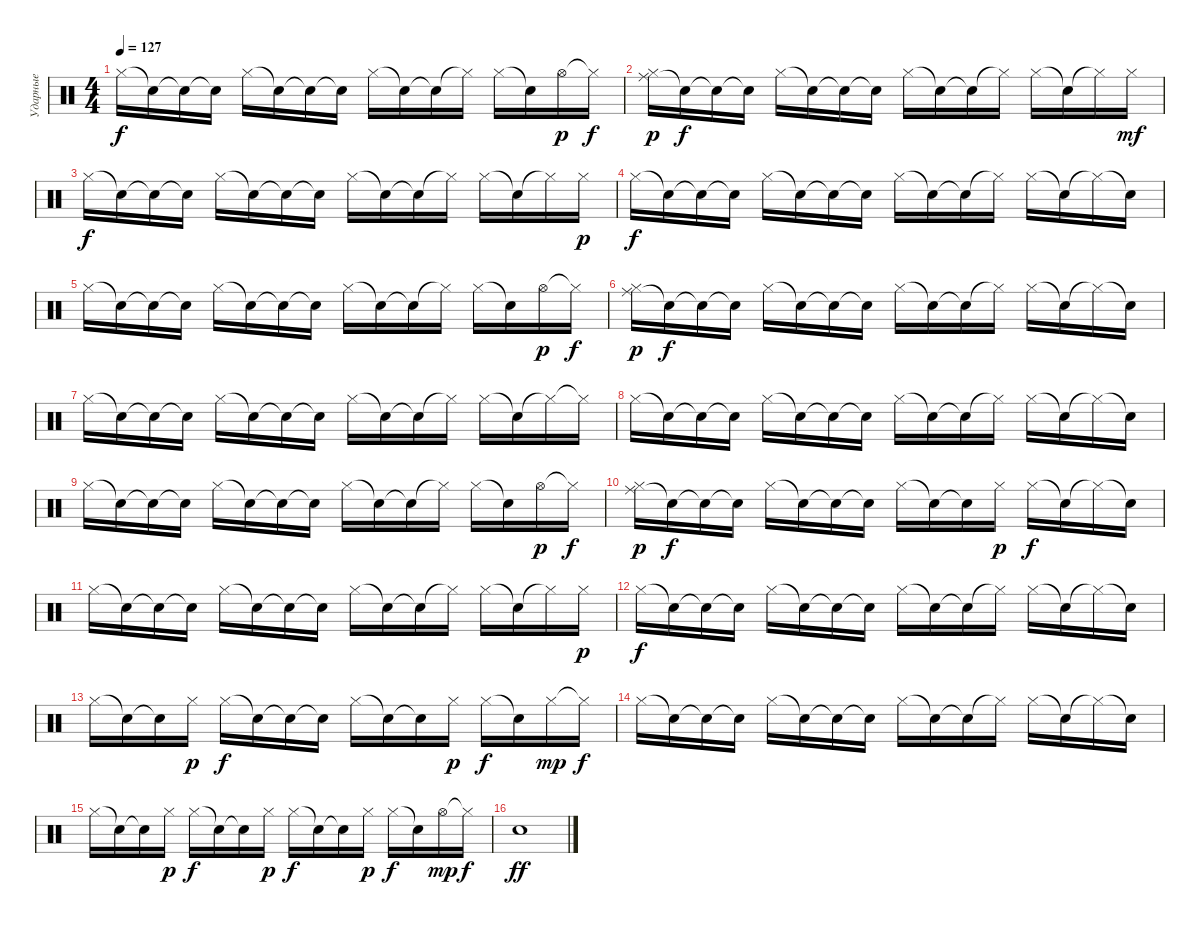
\track ("Ударные" "Ударные") {instrument percussion}
\staff {score}
\articulation defaults
\ts (4 4)
\tempo 127
\clef neutral
\ks c "Hi-Hat (closed)".16{dy f} "Snare (hit)"{t}.16 "Snare (hit)"{t}.16 "Snare (hit)"{t}.16 "Hi-Hat (closed)".16 "Snare (hit)"{t}.16 "Snare (hit)"{t}.16 "Snare (hit)"{t}.16 "Hi-Hat (closed)".16 "Snare (hit)"{t}.16 "Snare (hit)"{t}.16 "Hi-Hat (closed)"{t}.16 "Hi-Hat (closed)".16 "Snare (hit)"{t}.16 "Hi-Hat (open)".16{dy p} "Hi-Hat (closed)"{t}.16{dy f}
|
("Ride (middle)" "Hi-Hat (closed)").16{dy p} "Snare (hit)"{t}.16{dy f} "Snare (hit)"{t}.16 "Snare (hit)"{t}.16 "Hi-Hat (closed)".16 "Snare (hit)"{t}.16 "Snare (hit)"{t}.16 "Snare (hit)"{t}.16 "Hi-Hat (closed)".16 "Snare (hit)"{t}.16 "Snare (hit)"{t}.16 "Hi-Hat (closed)"{t}.16 "Hi-Hat (closed)".16 "Snare (hit)"{t}.16 "Hi-Hat (closed)"{t}.16 "Hi-Hat (closed)".16{dy mf} |
"Hi-Hat (closed)".16{dy f} "Snare (hit)"{t}.16 "Snare (hit)"{t}.16 "Snare (hit)"{t}.16 "Hi-Hat (closed)".16 "Snare (hit)"{t}.16 "Snare (hit)"{t}.16 "Snare (hit)"{t}.16 "Hi-Hat (closed)".16 "Snare (hit)"{t}.16 "Snare (hit)"{t}.16 "Hi-Hat (closed)"{t}.16 "Hi-Hat (closed)".16 "Snare (hit)"{t}.16 "Hi-Hat (closed)"{t}.16 "Hi-Hat (closed)".16{dy p} |
"Hi-Hat (closed)".16{dy f} "Snare (hit)"{t}.16 "Snare (hit)"{t}.16 "Snare (hit)"{t}.16 "Hi-Hat (closed)".16 "Snare (hit)"{t}.16 "Snare (hit)"{t}.16 "Snare (hit)"{t}.16 "Hi-Hat (closed)".16 "Snare (hit)"{t}.16 "Snare (hit)"{t}.16 "Hi-Hat (closed)"{t}.16 "Hi-Hat (closed)".16 "Snare (hit)"{t}.16 "Hi-Hat (closed)"{t}.16 "Snare (hit)"{t}.16 |
"Hi-Hat (closed)".16 "Snare (hit)"{t}.16 "Snare (hit)"{t}.16 "Snare (hit)"{t}.16 "Hi-Hat (closed)".16 "Snare (hit)"{t}.16 "Snare (hit)"{t}.16 "Snare (hit)"{t}.16 "Hi-Hat (closed)".16 "Snare (hit)"{t}.16 "Snare (hit)"{t}.16 "Hi-Hat (closed)"{t}.16 "Hi-Hat (closed)".16 "Snare (hit)"{t}.16 "Hi-Hat (open)".16{dy p} "Hi-Hat (closed)"{t}.16{dy f} |
("Ride (middle)" "Hi-Hat (closed)").16{dy p} "Snare (hit)"{t}.16{dy f} "Snare (hit)"{t}.16 "Snare (hit)"{t}.16 "Hi-Hat (closed)".16 "Snare (hit)"{t}.16 "Snare (hit)"{t}.16 "Snare (hit)"{t}.16 "Hi-Hat (closed)".16 "Snare (hit)"{t}.16 "Snare (hit)"{t}.16 "Hi-Hat (closed)"{t}.16 "Hi-Hat (closed)".16 "Snare (hit)"{t}.16 "Hi-Hat (closed)"{t}.16 "Snare (hit)"{t}.16 |
"Hi-Hat (closed)".16 "Snare (hit)"{t}.16 "Snare (hit)"{t}.16 "Snare (hit)"{t}.16 "Hi-Hat (closed)".16 "Snare (hit)"{t}.16 "Snare (hit)"{t}.16 "Snare (hit)"{t}.16 "Hi-Hat (closed)".16 "Snare (hit)"{t}.16 "Snare (hit)"{t}.16 "Hi-Hat (closed)"{t}.16 "Hi-Hat (closed)".16 "Snare (hit)"{t}.16 "Hi-Hat (closed)"{t}.16 "Hi-Hat (closed)"{t}.16 |
"Hi-Hat (closed)".16 "Snare (hit)"{t}.16 "Snare (hit)"{t}.16 "Snare (hit)"{t}.16 "Hi-Hat (closed)".16 "Snare (hit)"{t}.16 "Snare (hit)"{t}.16 "Snare (hit)"{t}.16 "Hi-Hat (closed)".16 "Snare (hit)"{t}.16 "Snare (hit)"{t}.16 "Hi-Hat (closed)"{t}.16 "Hi-Hat (closed)".16 "Snare (hit)"{t}.16 "Hi-Hat (closed)"{t}.16 "Snare (hit)"{t}.16 |
"Hi-Hat (closed)".16 "Snare (hit)"{t}.16 "Snare (hit)"{t}.16 "Snare (hit)"{t}.16 "Hi-Hat (closed)".16 "Snare (hit)"{t}.16 "Snare (hit)"{t}.16 "Snare (hit)"{t}.16 "Hi-Hat (closed)".16 "Snare (hit)"{t}.16 "Snare (hit)"{t}.16 "Hi-Hat (closed)"{t}.16 "Hi-Hat (closed)".16 "Snare (hit)"{t}.16 "Hi-Hat (open)".16{dy p} "Hi-Hat (closed)"{t}.16{dy f} |
("Ride (middle)" "Hi-Hat (closed)").16{dy p} "Snare (hit)"{t}.16{dy f} "Snare (hit)"{t}.16 "Snare (hit)"{t}.16 "Hi-Hat (closed)".16 "Snare (hit)"{t}.16 "Snare (hit)"{t}.16 "Snare (hit)"{t}.16 "Hi-Hat (closed)".16 "Snare (hit)"{t}.16 "Snare (hit)"{t}.16 "Hi-Hat (closed)".16{dy p} "Hi-Hat (closed)".16{dy f} "Snare (hit)"{t}.16 "Hi-Hat (closed)"{t}.16 "Snare (hit)"{t}.16 |
"Hi-Hat (closed)".16 "Snare (hit)"{t}.16 "Snare (hit)"{t}.16 "Snare (hit)"{t}.16 "Hi-Hat (closed)".16 "Snare (hit)"{t}.16 "Snare (hit)"{t}.16 "Snare (hit)"{t}.16 "Hi-Hat (closed)".16 "Snare (hit)"{t}.16 "Snare (hit)"{t}.16 "Hi-Hat (closed)"{t}.16 "Hi-Hat (closed)".16 "Snare (hit)"{t}.16 "Hi-Hat (closed)"{t}.16 "Hi-Hat (closed)".16{dy p} |
"Hi-Hat (closed)".16{dy f} "Snare (hit)"{t}.16 "Snare (hit)"{t}.16 "Snare (hit)"{t}.16 "Hi-Hat (closed)".16 "Snare (hit)"{t}.16 "Snare (hit)"{t}.16 "Snare (hit)"{t}.16 "Hi-Hat (closed)".16 "Snare (hit)"{t}.16 "Snare (hit)"{t}.16 "Hi-Hat (closed)"{t}.16 "Hi-Hat (closed)".16 "Snare (hit)"{t}.16 "Hi-Hat (closed)"{t}.16 "Snare (hit)"{t}.16 |
"Hi-Hat (closed)".16 "Snare (hit)"{t}.16 "Snare (hit)"{t}.16 "Hi-Hat (closed)".16{dy p} "Hi-Hat (closed)".16{dy f} "Snare (hit)"{t}.16 "Snare (hit)"{t}.16 "Snare (hit)"{t}.16 "Hi-Hat (closed)".16 "Snare (hit)"{t}.16 "Snare (hit)"{t}.16 "Hi-Hat (closed)".16{dy p} "Hi-Hat (closed)".16{dy f} "Snare (hit)"{t}.16 "Hi-Hat (closed)".16{dy mp} "Hi-Hat (closed)"{t}.16{dy f} |
"Hi-Hat (closed)".16 "Snare (hit)"{t}.16 "Snare (hit)"{t}.16 "Snare (hit)"{t}.16 "Hi-Hat (closed)".16 "Snare (hit)"{t}.16 "Snare (hit)"{t}.16 "Snare (hit)"{t}.16 "Hi-Hat (closed)".16 "Snare (hit)"{t}.16 "Snare (hit)"{t}.16 "Hi-Hat (closed)"{t}.16 "Hi-Hat (closed)".16 "Snare (hit)"{t}.16 "Hi-Hat (closed)"{t}.16 "Snare (hit)"{t}.16 |
"Hi-Hat (closed)".16 "Snare (hit)"{t}.16 "Snare (hit)"{t}.16 "Hi-Hat (closed)".16{dy p} "Hi-Hat (closed)".16{dy f} "Snare (hit)"{t}.16 "Snare (hit)"{t}.16 "Hi-Hat (closed)".16{dy p} "Hi-Hat (closed)".16{dy f} "Snare (hit)"{t}.16 "Snare (hit)"{t}.16 "Hi-Hat (closed)".16{dy p} "Hi-Hat (closed)".16{dy f} "Snare (hit)"{t}.16 "Hi-Hat (open)".16{dy mp} "Hi-Hat (closed)"{t}.16{dy f} |
"Electric Snare (hit)".1{dy ff}
